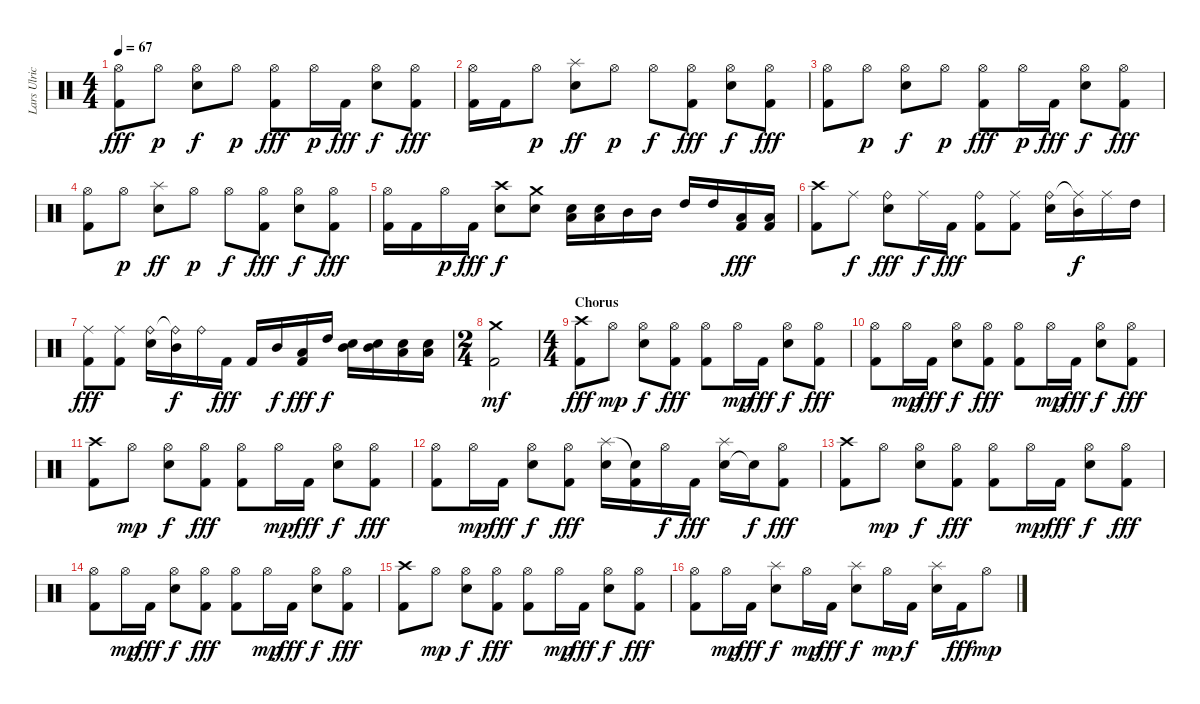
\track ("Lars Ulrich (Drums)" "Lars Ulric") {instrument percussion}
\staff {score}
\articulation defaults
\ts (4 4)
\tempo 67
\clef neutral
\ks c
("Hi-Hat (open)" "Kick (hit) 2").8{dy fff} "Hi-Hat (open)".8{dy p} ("Hi-Hat (open)" "Snare (hit) 2").8{dy f} "Hi-Hat (open)".8{dy p} ("Hi-Hat (open)" "Kick (hit) 2").8{dy fff} "Hi-Hat (open)".16{dy p} "Kick (hit) 2".16{dy fff} ("Hi-Hat (open)" "Snare (hit) 2").8{dy f} ("Hi-Hat (open)" "Kick (hit) 2").8{dy fff} |
("Hi-Hat (open)" "Kick (hit) 2").16 "Kick (hit) 2".16 "Hi-Hat (open)".8{dy p} ("Snare (hit) 2" "Splash (hit)").8{dy ff} "Hi-Hat (open)".8{dy p} "Hi-Hat (open)".8{dy f} ("Hi-Hat (open)" "Kick (hit) 2").8{dy fff} ("Hi-Hat (open)" "Snare (hit) 2").8{dy f} ("Hi-Hat (open)" "Kick (hit) 2").8{dy fff} |
("Hi-Hat (open)" "Kick (hit) 2").8 "Hi-Hat (open)".8{dy p} ("Hi-Hat (open)" "Snare (hit) 2").8{dy f} "Hi-Hat (open)".8{dy p} ("Hi-Hat (open)" "Kick (hit) 2").8{dy fff} "Hi-Hat (open)".16{dy p} "Kick (hit) 2".16{dy fff} ("Hi-Hat (open)" "Snare (hit) 2").8{dy f} ("Hi-Hat (open)" "Kick (hit) 2").8{dy fff} |
("Hi-Hat (open)" "Kick (hit) 2").8 "Hi-Hat (open)".8{dy p} ("Snare (hit) 2" "Splash (hit)").8{dy ff} "Hi-Hat (open)".8{dy p} "Hi-Hat (open)".8{dy f} ("Hi-Hat (open)" "Kick (hit) 2").8{dy fff} ("Hi-Hat (open)" "Snare (hit) 2").8{dy f} ("Hi-Hat (open)" "Kick (hit) 2").8{dy fff} |
("Hi-Hat (open)" "Kick (hit) 2").16 "Kick (hit) 2".16 "Hi-Hat (open)".16{dy p} "Kick (hit) 2".16{dy fff} ("Snare (hit) 2" "Crash high (hit)").8{dy f} ("Snare (hit) 2" "Crash medium (hit)").8 ("Snare (hit) 2" "Low Tom (hit)").16 ("Snare (hit) 2" "Low Tom (hit)").16 "Mid Tom (hit)".16 "Mid Tom (hit)".16 "High Tom (hit)".16 "High Tom (hit)".16 ("Kick (hit) 2" "Low Tom (hit)").16{dy fff} ("Kick (hit) 2" "Low Tom (hit)").16 |
("Kick (hit) 2" "Crash high (hit)").8 "Ride (middle)".8{dy f} ("Ride (bell)" "Snare (hit) 2").8{dy fff} "Ride (middle)".16{dy f} "Kick (hit) 2".16{dy fff} ("Ride (bell)" "Kick (hit) 2").8 ("Ride (middle)" "Kick (hit) 2").8 ("Ride (bell)" "Snare (hit) 2").16 ("Ride (middle)"{t} "Mid Tom (hit)").16{dy f} "Ride (middle)".16 "High Tom (hit)".16 |
("Ride (middle)" "Kick (hit) 2").8{dy fff} ("Ride (middle)" "Kick (hit) 2").8 ("Ride (bell)" "Snare (hit) 2").16 ("Ride (bell)"{t} "Mid Tom (hit)").16{dy f} "Ride (bell)".16 "Kick (hit) 2".16{dy fff} "Kick (hit) 2".16 "Mid Tom (hit)".16{dy f} ("Kick (hit) 2" "Low Tom (hit)").16{dy fff} "High Tom (hit)".16{dy f} ("Snare (hit) 2" "Mid Tom (hit)").16 ("Snare (hit) 2" "Mid Tom (hit)").16 ("Snare (hit) 2" "Low Tom (hit)").16 ("Snare (hit) 2" "Low Tom (hit)").16 |
\ts (2 4)
("Kick (hit) 2" "Crash medium (hit)").2{dy mf} |
\ts (4 4)
\section ("" "Chorus")
("Kick (hit) 2" "Crash high (hit)").8{dy fff} "Hi-Hat (open)".8{dy mp} ("Hi-Hat (open)" "Snare (hit) 2").8{dy f} ("Hi-Hat (open)" "Kick (hit) 2").8{dy fff} ("Hi-Hat (open)" "Kick (hit) 2").8 "Hi-Hat (open)".16{dy mp} "Kick (hit) 2".16{dy fff} ("Hi-Hat (open)" "Snare (hit) 2").8{dy f} ("Hi-Hat (open)" "Kick (hit) 2").8{dy fff} |
("Hi-Hat (open)" "Kick (hit) 2").8 "Hi-Hat (open)".16{dy mp} "Kick (hit) 2".16{dy fff} ("Hi-Hat (open)" "Snare (hit) 2").8{dy f} ("Hi-Hat (open)" "Kick (hit) 2").8{dy fff} ("Hi-Hat (open)" "Kick (hit) 2").8 "Hi-Hat (open)".16{dy mp} "Kick (hit) 2".16{dy fff} ("Hi-Hat (open)" "Snare (hit) 2").8{dy f} ("Hi-Hat (open)" "Kick (hit) 2").8{dy fff} |
("Kick (hit) 2" "Crash high (hit)").8 "Hi-Hat (open)".8{dy mp} ("Hi-Hat (open)" "Snare (hit) 2").8{dy f} ("Hi-Hat (open)" "Kick (hit) 2").8{dy fff} ("Hi-Hat (open)" "Kick (hit) 2").8 "Hi-Hat (open)".16{dy mp} "Kick (hit) 2".16{dy fff} ("Hi-Hat (open)" "Snare (hit) 2").8{dy f} ("Hi-Hat (open)" "Kick (hit) 2").8{dy fff} |
("Hi-Hat (open)" "Kick (hit) 2").8 "Hi-Hat (open)".16{dy mp} "Kick (hit) 2".16{dy fff} ("Hi-Hat (open)" "Snare (hit) 2").8{dy f} ("Hi-Hat (open)" "Kick (hit) 2").8{dy fff} ("Snare (hit) 2" "Splash (hit)").16 ("Kick (hit) 2" "Snare (hit)"{t}).16 "Hi-Hat (open)".16{dy f} "Kick (hit) 2".16{dy fff} ("Snare (hit) 2" "Splash (hit)").16 "Snare (hit)"{t}.16{dy f} ("Hi-Hat (open)" "Kick (hit) 2").8{dy fff} |
("Kick (hit) 2" "Crash high (hit)").8 "Hi-Hat (open)".8{dy mp} ("Hi-Hat (open)" "Snare (hit) 2").8{dy f} ("Hi-Hat (open)" "Kick (hit) 2").8{dy fff} ("Hi-Hat (open)" "Kick (hit) 2").8 "Hi-Hat (open)".16{dy mp} "Kick (hit) 2".16{dy fff} ("Hi-Hat (open)" "Snare (hit) 2").8{dy f} ("Hi-Hat (open)" "Kick (hit) 2").8{dy fff} |
("Hi-Hat (open)" "Kick (hit) 2").8 "Hi-Hat (open)".16{dy mp} "Kick (hit) 2".16{dy fff} ("Hi-Hat (open)" "Snare (hit) 2").8{dy f} ("Hi-Hat (open)" "Kick (hit) 2").8{dy fff} ("Hi-Hat (open)" "Kick (hit) 2").8 "Hi-Hat (open)".16{dy mp} "Kick (hit) 2".16{dy fff} ("Hi-Hat (open)" "Snare (hit) 2").8{dy f} ("Hi-Hat (open)" "Kick (hit) 2").8{dy fff} |
("Kick (hit) 2" "Crash high (hit)").8 "Hi-Hat (open)".8{dy mp} ("Hi-Hat (open)" "Snare (hit) 2").8{dy f} ("Hi-Hat (open)" "Kick (hit) 2").8{dy fff} ("Hi-Hat (open)" "Kick (hit) 2").8 "Hi-Hat (open)".16{dy mp} "Kick (hit) 2".16{dy fff} ("Hi-Hat (open)" "Snare (hit) 2").8{dy f} ("Hi-Hat (open)" "Kick (hit) 2").8{dy fff} |
("Hi-Hat (open)" "Kick (hit) 2").8 "Hi-Hat (open)".16{dy mp} "Kick (hit) 2".16{dy fff} ("Snare (hit) 2" "Splash (hit)").8{dy f} "Hi-Hat (open)".16{dy mp} "Kick (hit) 2".16{dy fff} ("Snare (hit) 2" "Splash (hit)").8{dy f} "Hi-Hat (open)".16{dy mp} "Kick (hit) 2".16{dy f} ("Snare (hit) 2" "Splash (hit)").16 "Kick (hit) 2".16{dy fff} "Hi-Hat (open)".8{dy mp}
